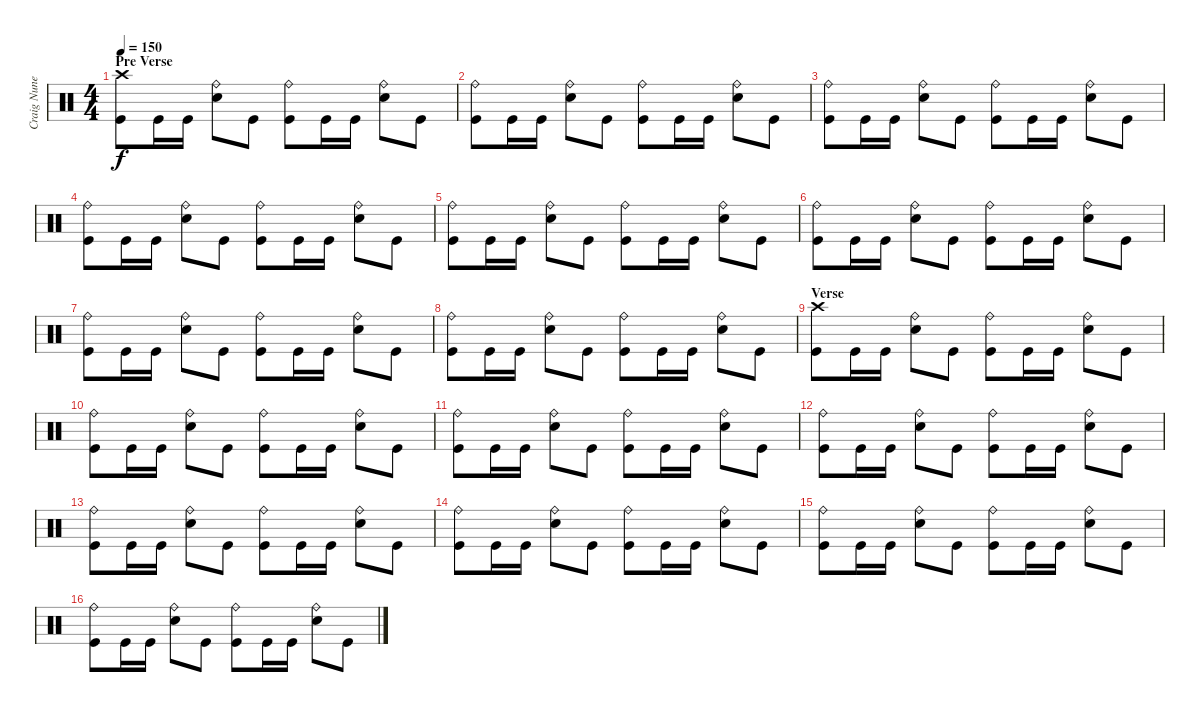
\track ("Craig Nunenmacher" "Craig Nune") {instrument percussion}
\staff {score}
\articulation defaults
\ts (4 4)
\section ("" "Pre Verse")
\tempo 150
\clef neutral
\ks c
("Crash high (hit)" "Kick (hit)").8{dy f} "Kick (hit)".16 "Kick (hit)".16 ("Ride (bell)" "Snare (hit) 2").8 "Kick (hit)".8 ("Ride (bell)" "Kick (hit)").8 "Kick (hit)".16 "Kick (hit)".16 ("Ride (bell)" "Snare (hit) 2").8 "Kick (hit)".8 |
("Ride (bell)" "Kick (hit)").8 "Kick (hit)".16 "Kick (hit)".16 ("Ride (bell)" "Snare (hit) 2").8 "Kick (hit)".8 ("Ride (bell)" "Kick (hit)").8 "Kick (hit)".16 "Kick (hit)".16 ("Ride (bell)" "Snare (hit) 2").8 "Kick (hit)".8 |
("Ride (bell)" "Kick (hit)").8 "Kick (hit)".16 "Kick (hit)".16 ("Ride (bell)" "Snare (hit) 2").8 "Kick (hit)".8 ("Ride (bell)" "Kick (hit)").8 "Kick (hit)".16 "Kick (hit)".16 ("Ride (bell)" "Snare (hit) 2").8 "Kick (hit)".8 |
("Ride (bell)" "Kick (hit)").8 "Kick (hit)".16 "Kick (hit)".16 ("Ride (bell)" "Snare (hit) 2").8 "Kick (hit)".8 ("Ride (bell)" "Kick (hit)").8 "Kick (hit)".16 "Kick (hit)".16 ("Ride (bell)" "Snare (hit) 2").8 "Kick (hit)".8 |
("Ride (bell)" "Kick (hit)").8 "Kick (hit)".16 "Kick (hit)".16 ("Ride (bell)" "Snare (hit) 2").8 "Kick (hit)".8 ("Ride (bell)" "Kick (hit)").8 "Kick (hit)".16 "Kick (hit)".16 ("Ride (bell)" "Snare (hit) 2").8 "Kick (hit)".8 |
("Ride (bell)" "Kick (hit)").8 "Kick (hit)".16 "Kick (hit)".16 ("Ride (bell)" "Snare (hit) 2").8 "Kick (hit)".8 ("Ride (bell)" "Kick (hit)").8 "Kick (hit)".16 "Kick (hit)".16 ("Ride (bell)" "Snare (hit) 2").8 "Kick (hit)".8 |
("Ride (bell)" "Kick (hit)").8 "Kick (hit)".16 "Kick (hit)".16 ("Ride (bell)" "Snare (hit) 2").8 "Kick (hit)".8 ("Ride (bell)" "Kick (hit)").8 "Kick (hit)".16 "Kick (hit)".16 ("Ride (bell)" "Snare (hit) 2").8 "Kick (hit)".8 |
("Ride (bell)" "Kick (hit)").8 "Kick (hit)".16 "Kick (hit)".16 ("Ride (bell)" "Snare (hit) 2").8 "Kick (hit)".8 ("Ride (bell)" "Kick (hit)").8 "Kick (hit)".16 "Kick (hit)".16 ("Ride (bell)" "Snare (hit) 2").8 "Kick (hit)".8 |
\section ("" "Verse")
("Crash high (hit)" "Kick (hit)").8 "Kick (hit)".16 "Kick (hit)".16 ("Ride (bell)" "Snare (hit) 2").8 "Kick (hit)".8 ("Ride (bell)" "Kick (hit)").8 "Kick (hit)".16 "Kick (hit)".16 ("Ride (bell)" "Snare (hit) 2").8 "Kick (hit)".8 |
("Ride (bell)" "Kick (hit)").8 "Kick (hit)".16 "Kick (hit)".16 ("Ride (bell)" "Snare (hit) 2").8 "Kick (hit)".8 ("Ride (bell)" "Kick (hit)").8 "Kick (hit)".16 "Kick (hit)".16 ("Ride (bell)" "Snare (hit) 2").8 "Kick (hit)".8 |
("Ride (bell)" "Kick (hit)").8 "Kick (hit)".16 "Kick (hit)".16 ("Ride (bell)" "Snare (hit) 2").8 "Kick (hit)".8 ("Ride (bell)" "Kick (hit)").8 "Kick (hit)".16 "Kick (hit)".16 ("Ride (bell)" "Snare (hit) 2").8 "Kick (hit)".8 |
("Ride (bell)" "Kick (hit)").8 "Kick (hit)".16 "Kick (hit)".16 ("Ride (bell)" "Snare (hit) 2").8 "Kick (hit)".8 ("Ride (bell)" "Kick (hit)").8 "Kick (hit)".16 "Kick (hit)".16 ("Ride (bell)" "Snare (hit) 2").8 "Kick (hit)".8 |
("Ride (bell)" "Kick (hit)").8 "Kick (hit)".16 "Kick (hit)".16 ("Ride (bell)" "Snare (hit) 2").8 "Kick (hit)".8 ("Ride (bell)" "Kick (hit)").8 "Kick (hit)".16 "Kick (hit)".16 ("Ride (bell)" "Snare (hit) 2").8 "Kick (hit)".8 |
("Ride (bell)" "Kick (hit)").8 "Kick (hit)".16 "Kick (hit)".16 ("Ride (bell)" "Snare (hit) 2").8 "Kick (hit)".8 ("Ride (bell)" "Kick (hit)").8 "Kick (hit)".16 "Kick (hit)".16 ("Ride (bell)" "Snare (hit) 2").8 "Kick (hit)".8 |
("Ride (bell)" "Kick (hit)").8 "Kick (hit)".16 "Kick (hit)".16 ("Ride (bell)" "Snare (hit) 2").8 "Kick (hit)".8 ("Ride (bell)" "Kick (hit)").8 "Kick (hit)".16 "Kick (hit)".16 ("Ride (bell)" "Snare (hit) 2").8 "Kick (hit)".8 |
("Ride (bell)" "Kick (hit)").8 "Kick (hit)".16 "Kick (hit)".16 ("Ride (bell)" "Snare (hit) 2").8 "Kick (hit)".8 ("Ride (bell)" "Kick (hit)").8 "Kick (hit)".16 "Kick (hit)".16 ("Ride (bell)" "Snare (hit) 2").8 "Kick (hit)".8
